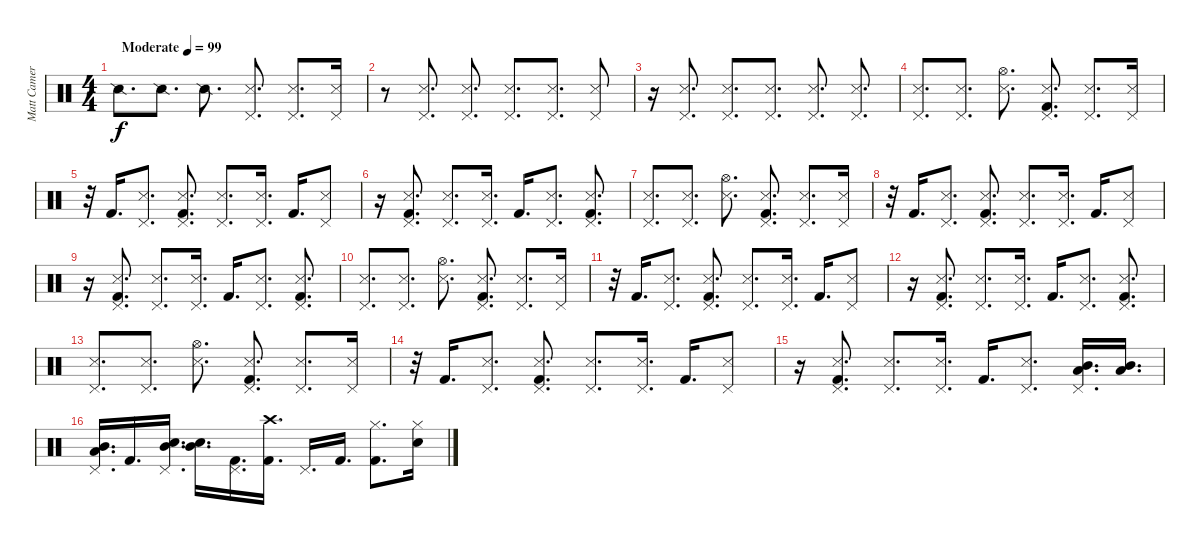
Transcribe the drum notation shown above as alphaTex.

\track ("Matt Cameron" "Matt Camer") {instrument percussion}
\staff {score}
\articulation defaults
\ts (4 4)
\tempo (99 "Moderate")
\clef neutral
\ks c "Snare (side stick) 2".8{d dy f} "Snare (side stick) 2".8{d} "Snare (side stick) 2".8{d}
("Pedal Hi-Hat (hit)" "Snare (side stick) 3").8{d} ("Pedal Hi-Hat (hit)" "Snare (side stick) 3").8{d} ("Pedal Hi-Hat (hit)" "Snare (side stick) 3").16 |
r.8 ("Pedal Hi-Hat (hit)" "Snare (side stick) 3").8{d} ("Pedal Hi-Hat (hit)" "Snare (side stick) 3").8{d} ("Pedal Hi-Hat (hit)" "Snare (side stick) 3").8{d} ("Pedal Hi-Hat (hit)" "Snare (side stick) 3").8{d} ("Pedal Hi-Hat (hit)" "Snare (side stick) 3").8 |
r.16 ("Pedal Hi-Hat (hit)" "Snare (side stick) 3").8{d} ("Pedal Hi-Hat (hit)" "Snare (side stick) 3").8{d} ("Pedal Hi-Hat (hit)" "Snare (side stick) 3").8{d} ("Pedal Hi-Hat (hit)" "Snare (side stick) 3").8{d} ("Pedal Hi-Hat (hit)" "Snare (side stick) 3").8{d} |
("Pedal Hi-Hat (hit)" "Snare (side stick) 3").8{d} ("Pedal Hi-Hat (hit)" "Snare (side stick) 3").8{d} ("Hi-Hat (open)" "Snare (side stick) 3").8{d} ("Pedal Hi-Hat (hit)" "Snare (side stick) 3" "Kick (hit) 2").8{d} ("Pedal Hi-Hat (hit)" "Snare (side stick) 3").8{d} ("Pedal Hi-Hat (hit)" "Snare (side stick) 3").16 |
r.32 "Kick (hit) 2".16{d} ("Pedal Hi-Hat (hit)" "Snare (side stick) 3").8{d} ("Pedal Hi-Hat (hit)" "Snare (side stick) 3" "Kick (hit) 2").8{d} ("Pedal Hi-Hat (hit)" "Snare (side stick) 3").8{d} ("Pedal Hi-Hat (hit)" "Snare (side stick) 3").16{d} "Kick (hit) 2".16{d} ("Pedal Hi-Hat (hit)" "Snare (side stick) 3").8 |
r.16 ("Pedal Hi-Hat (hit)" "Snare (side stick) 3" "Kick (hit) 2").8{d} ("Pedal Hi-Hat (hit)" "Snare (side stick) 3").8{d} ("Pedal Hi-Hat (hit)" "Snare (side stick) 3").16{d} "Kick (hit) 2".16{d} ("Pedal Hi-Hat (hit)" "Snare (side stick) 3").8{d} ("Pedal Hi-Hat (hit)" "Snare (side stick) 3" "Kick (hit) 2").8{d} |
("Pedal Hi-Hat (hit)" "Snare (side stick) 3").8{d} ("Pedal Hi-Hat (hit)" "Snare (side stick) 3").8{d} ("Hi-Hat (open)" "Snare (side stick) 3").8{d} ("Pedal Hi-Hat (hit)" "Snare (side stick) 3" "Kick (hit) 2").8{d} ("Pedal Hi-Hat (hit)" "Snare (side stick) 3").8{d} ("Pedal Hi-Hat (hit)" "Snare (side stick) 3").16 |
r.32 "Kick (hit) 2".16{d} ("Pedal Hi-Hat (hit)" "Snare (side stick) 3").8{d} ("Pedal Hi-Hat (hit)" "Snare (side stick) 3" "Kick (hit) 2").8{d} ("Pedal Hi-Hat (hit)" "Snare (side stick) 3").8{d} ("Pedal Hi-Hat (hit)" "Snare (side stick) 3").16{d} "Kick (hit) 2".16{d} ("Pedal Hi-Hat (hit)" "Snare (side stick) 3").8 |
r.16 ("Pedal Hi-Hat (hit)" "Snare (side stick) 3" "Kick (hit) 2").8{d} ("Pedal Hi-Hat (hit)" "Snare (side stick) 3").8{d} ("Pedal Hi-Hat (hit)" "Snare (side stick) 3").16{d} "Kick (hit) 2".16{d} ("Pedal Hi-Hat (hit)" "Snare (side stick) 3").8{d} ("Pedal Hi-Hat (hit)" "Snare (side stick) 3" "Kick (hit) 2").8{d} |
("Pedal Hi-Hat (hit)" "Snare (side stick) 3").8{d} ("Pedal Hi-Hat (hit)" "Snare (side stick) 3").8{d} ("Hi-Hat (open)" "Snare (side stick) 3").8{d} ("Pedal Hi-Hat (hit)" "Snare (side stick) 3" "Kick (hit) 2").8{d} ("Pedal Hi-Hat (hit)" "Snare (side stick) 3").8{d} ("Pedal Hi-Hat (hit)" "Snare (side stick) 3").16 |
r.32 "Kick (hit) 2".16{d} ("Pedal Hi-Hat (hit)" "Snare (side stick) 3").8{d} ("Pedal Hi-Hat (hit)" "Snare (side stick) 3" "Kick (hit) 2").8{d} ("Pedal Hi-Hat (hit)" "Snare (side stick) 3").8{d} ("Pedal Hi-Hat (hit)" "Snare (side stick) 3").16{d} "Kick (hit) 2".16{d} ("Pedal Hi-Hat (hit)" "Snare (side stick) 3").8 |
r.16 ("Pedal Hi-Hat (hit)" "Snare (side stick) 3" "Kick (hit) 2").8{d} ("Pedal Hi-Hat (hit)" "Snare (side stick) 3").8{d} ("Pedal Hi-Hat (hit)" "Snare (side stick) 3").16{d} "Kick (hit) 2".16{d} ("Pedal Hi-Hat (hit)" "Snare (side stick) 3").8{d} ("Pedal Hi-Hat (hit)" "Snare (side stick) 3" "Kick (hit) 2").8{d} |
("Pedal Hi-Hat (hit)" "Snare (side stick) 3").8{d} ("Pedal Hi-Hat (hit)" "Snare (side stick) 3").8{d} ("Hi-Hat (open)" "Snare (side stick) 3").8{d} ("Pedal Hi-Hat (hit)" "Snare (side stick) 3" "Kick (hit) 2").8{d} ("Pedal Hi-Hat (hit)" "Snare (side stick) 3").8{d} ("Pedal Hi-Hat (hit)" "Snare (side stick) 3").16 |
r.32 "Kick (hit) 2".16{d} ("Pedal Hi-Hat (hit)" "Snare (side stick) 3").8{d} ("Pedal Hi-Hat (hit)" "Snare (side stick) 3" "Kick (hit) 2").8{d} ("Pedal Hi-Hat (hit)" "Snare (side stick) 3").8{d} ("Pedal Hi-Hat (hit)" "Snare (side stick) 3").16{d} "Kick (hit) 2".16{d} ("Pedal Hi-Hat (hit)" "Snare (side stick) 3").8 |
r.16 ("Pedal Hi-Hat (hit)" "Snare (side stick) 3" "Kick (hit) 2").8{d} ("Pedal Hi-Hat (hit)" "Snare (side stick) 3").8{d} ("Pedal Hi-Hat (hit)" "Snare (side stick) 3").16{d} "Kick (hit) 2".16{d} ("Pedal Hi-Hat (hit)" "Snare (side stick) 3").8{d} ("Pedal Hi-Hat (hit)" "Low Tom (hit)" "Mid Tom (hit)").16{d} ("Low Tom (hit)" "Mid Tom (hit)").16{d} |
("Pedal Hi-Hat (hit)" "Low Tom (hit)" "Mid Tom (hit)").16{d} "Kick (hit) 2".16{d} ("Pedal Hi-Hat (hit)" "Electric Snare (hit)" "Mid Tom (hit)").16{d} ("Electric Snare (hit)" "Mid Tom (hit)").16{d} ("Pedal Hi-Hat (hit)" "Kick (hit) 2").16{d} ("Crash high (hit)" "Kick (hit) 2").16{d} "Pedal Hi-Hat (hit)".16{d} "Kick (hit) 2".16{d} ("Hi-Hat (closed)" "Kick (hit) 2").8{d} ("Hi-Hat (closed)" "Electric Snare (hit)").16
